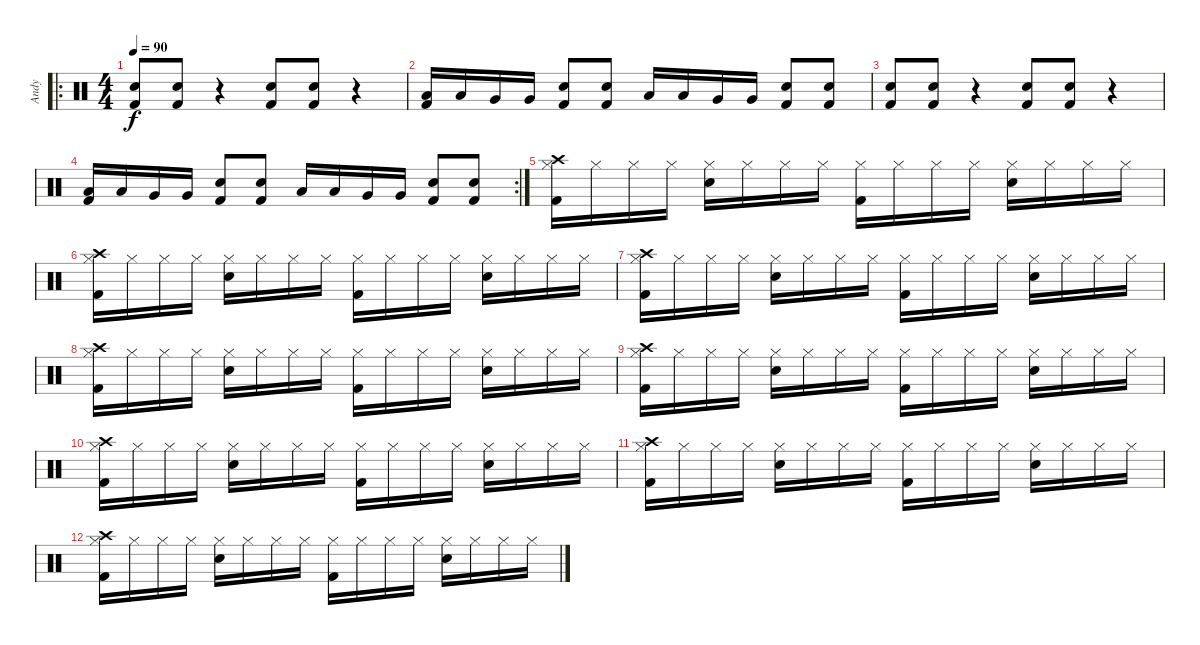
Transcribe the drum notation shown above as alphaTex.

\track ("Andy" "Andy") {instrument percussion}
\staff {score}
\articulation defaults
\ro
\ts (4 4)
\tempo 90
\clef neutral
\ks c
("Snare (hit) 2" "Kick (hit) 2").8{dy f} ("Snare (hit) 2" "Kick (hit) 2").8 r.4 ("Snare (hit) 2" "Kick (hit) 2").8 ("Snare (hit) 2" "Kick (hit) 2").8 r.4 |
("Low Tom (hit)" "Kick (hit) 2").16 "Low Tom (hit)".16 "Very Low Tom (hit)".16 "Very Low Tom (hit)".16 ("Snare (hit) 2" "Kick (hit) 2").8 ("Snare (hit) 2" "Kick (hit) 2").8 "Low Tom (hit)".16 "Low Tom (hit)".16 "Very Low Tom (hit)".16 "Very Low Tom (hit)".16 ("Snare (hit) 2" "Kick (hit) 2").8 ("Snare (hit) 2" "Kick (hit) 2").8 |
("Snare (hit) 2" "Kick (hit) 2").8 ("Snare (hit) 2" "Kick (hit) 2").8 r.4 ("Snare (hit) 2" "Kick (hit) 2").8 ("Snare (hit) 2" "Kick (hit) 2").8 r.4 |
\rc 2
("Low Tom (hit)" "Kick (hit) 2").16 "Low Tom (hit)".16 "Very Low Tom (hit)".16 "Very Low Tom (hit)".16 ("Snare (hit) 2" "Kick (hit) 2").8 ("Snare (hit) 2" "Kick (hit) 2").8 "Low Tom (hit)".16 "Low Tom (hit)".16 "Very Low Tom (hit)".16 "Very Low Tom (hit)".16 ("Snare (hit) 2" "Kick (hit) 2").8 ("Snare (hit) 2" "Kick (hit) 2").8 |
("Crash high (hit)" "Hi-Hat (closed)" "Kick (hit) 2").16 "Hi-Hat (closed)".16 "Hi-Hat (closed)".16 "Hi-Hat (closed)".16 ("Hi-Hat (closed)" "Snare (hit) 2").16 "Hi-Hat (closed)".16 "Hi-Hat (closed)".16 "Hi-Hat (closed)".16 ("Hi-Hat (closed)" "Kick (hit) 2").16 "Hi-Hat (closed)".16 "Hi-Hat (closed)".16 "Hi-Hat (closed)".16 ("Hi-Hat (closed)" "Snare (hit) 2").16 "Hi-Hat (closed)".16 "Hi-Hat (closed)".16 "Hi-Hat (closed)".16 |
("Crash high (hit)" "Hi-Hat (closed)" "Kick (hit) 2").16 "Hi-Hat (closed)".16 "Hi-Hat (closed)".16 "Hi-Hat (closed)".16 ("Hi-Hat (closed)" "Snare (hit) 2").16 "Hi-Hat (closed)".16 "Hi-Hat (closed)".16 "Hi-Hat (closed)".16 ("Hi-Hat (closed)" "Kick (hit) 2").16 "Hi-Hat (closed)".16 "Hi-Hat (closed)".16 "Hi-Hat (closed)".16 ("Hi-Hat (closed)" "Snare (hit) 2").16 "Hi-Hat (closed)".16 "Hi-Hat (closed)".16 "Hi-Hat (closed)".16 |
("Crash high (hit)" "Hi-Hat (closed)" "Kick (hit) 2").16 "Hi-Hat (closed)".16 "Hi-Hat (closed)".16 "Hi-Hat (closed)".16 ("Hi-Hat (closed)" "Snare (hit) 2").16 "Hi-Hat (closed)".16 "Hi-Hat (closed)".16 "Hi-Hat (closed)".16 ("Hi-Hat (closed)" "Kick (hit) 2").16 "Hi-Hat (closed)".16 "Hi-Hat (closed)".16 "Hi-Hat (closed)".16 ("Hi-Hat (closed)" "Snare (hit) 2").16 "Hi-Hat (closed)".16 "Hi-Hat (closed)".16 "Hi-Hat (closed)".16 |
("Crash high (hit)" "Hi-Hat (closed)" "Kick (hit) 2").16 "Hi-Hat (closed)".16 "Hi-Hat (closed)".16 "Hi-Hat (closed)".16 ("Hi-Hat (closed)" "Snare (hit) 2").16 "Hi-Hat (closed)".16 "Hi-Hat (closed)".16 "Hi-Hat (closed)".16 ("Hi-Hat (closed)" "Kick (hit) 2").16 "Hi-Hat (closed)".16 "Hi-Hat (closed)".16 "Hi-Hat (closed)".16 ("Hi-Hat (closed)" "Snare (hit) 2").16 "Hi-Hat (closed)".16 "Hi-Hat (closed)".16 "Hi-Hat (closed)".16 |
("Crash high (hit)" "Hi-Hat (closed)" "Kick (hit) 2").16 "Hi-Hat (closed)".16 "Hi-Hat (closed)".16 "Hi-Hat (closed)".16 ("Hi-Hat (closed)" "Snare (hit) 2").16 "Hi-Hat (closed)".16 "Hi-Hat (closed)".16 "Hi-Hat (closed)".16 ("Hi-Hat (closed)" "Kick (hit) 2").16 "Hi-Hat (closed)".16 "Hi-Hat (closed)".16 "Hi-Hat (closed)".16 ("Hi-Hat (closed)" "Snare (hit) 2").16 "Hi-Hat (closed)".16 "Hi-Hat (closed)".16 "Hi-Hat (closed)".16 |
("Crash high (hit)" "Hi-Hat (closed)" "Kick (hit) 2").16 "Hi-Hat (closed)".16 "Hi-Hat (closed)".16 "Hi-Hat (closed)".16 ("Hi-Hat (closed)" "Snare (hit) 2").16 "Hi-Hat (closed)".16 "Hi-Hat (closed)".16 "Hi-Hat (closed)".16 ("Hi-Hat (closed)" "Kick (hit) 2").16 "Hi-Hat (closed)".16 "Hi-Hat (closed)".16 "Hi-Hat (closed)".16 ("Hi-Hat (closed)" "Snare (hit) 2").16 "Hi-Hat (closed)".16 "Hi-Hat (closed)".16 "Hi-Hat (closed)".16 |
("Crash high (hit)" "Hi-Hat (closed)" "Kick (hit) 2").16 "Hi-Hat (closed)".16 "Hi-Hat (closed)".16 "Hi-Hat (closed)".16 ("Hi-Hat (closed)" "Snare (hit) 2").16 "Hi-Hat (closed)".16 "Hi-Hat (closed)".16 "Hi-Hat (closed)".16 ("Hi-Hat (closed)" "Kick (hit) 2").16 "Hi-Hat (closed)".16 "Hi-Hat (closed)".16 "Hi-Hat (closed)".16 ("Hi-Hat (closed)" "Snare (hit) 2").16 "Hi-Hat (closed)".16 "Hi-Hat (closed)".16 "Hi-Hat (closed)".16 |
("Crash high (hit)" "Hi-Hat (closed)" "Kick (hit) 2").16 "Hi-Hat (closed)".16 "Hi-Hat (closed)".16 "Hi-Hat (closed)".16 ("Hi-Hat (closed)" "Snare (hit) 2").16 "Hi-Hat (closed)".16 "Hi-Hat (closed)".16 "Hi-Hat (closed)".16 ("Hi-Hat (closed)" "Kick (hit) 2").16 "Hi-Hat (closed)".16 "Hi-Hat (closed)".16 "Hi-Hat (closed)".16 ("Hi-Hat (closed)" "Snare (hit) 2").16 "Hi-Hat (closed)".16 "Hi-Hat (closed)".16 "Hi-Hat (closed)".16
